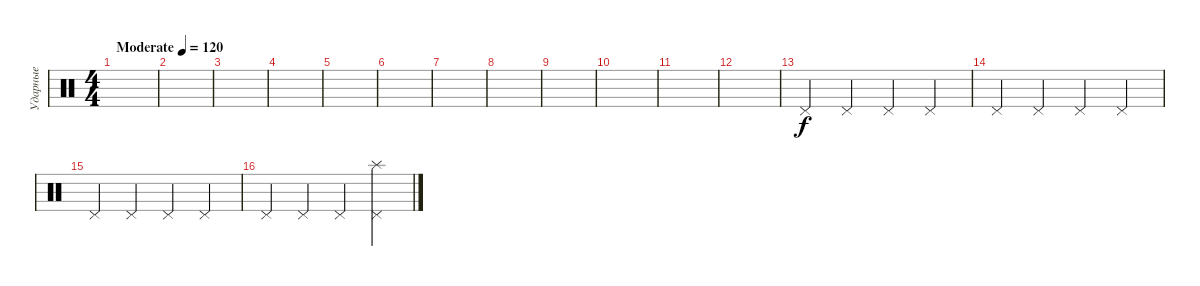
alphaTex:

\track ("Ударные" "Ударные") {instrument percussion}
\staff {score}
\articulation defaults
\ts (4 4)
\tempo (120 "Moderate")
\clef neutral
\ks c
|
|
|
|
|
|
|
|
|
|
|
|
"Pedal Hi-Hat (hit)".4 "Pedal Hi-Hat (hit)".4 "Pedal Hi-Hat (hit)".4 "Pedal Hi-Hat (hit)".4 |
"Pedal Hi-Hat (hit)".4 "Pedal Hi-Hat (hit)".4 "Pedal Hi-Hat (hit)".4 "Pedal Hi-Hat (hit)".4 |
"Pedal Hi-Hat (hit)".4 "Pedal Hi-Hat (hit)".4 "Pedal Hi-Hat (hit)".4 "Pedal Hi-Hat (hit)".4 |
"Pedal Hi-Hat (hit)".4 "Pedal Hi-Hat (hit)".4 "Pedal Hi-Hat (hit)".4 ("Splash (hit)" "Pedal Hi-Hat (hit)").4
